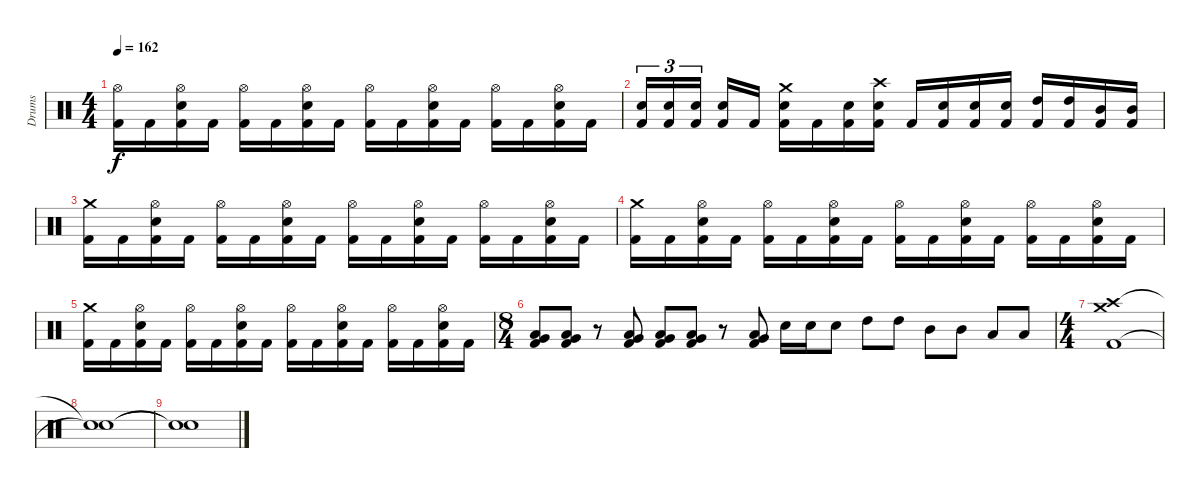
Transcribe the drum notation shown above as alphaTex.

\track ("Drums" "Drums") {instrument percussion}
\staff {score}
\articulation defaults
\ts (4 4)
\tempo 162
\clef neutral
\ks c
("Kick (hit) 2" "Hi-Hat (open)").16{dy f} "Kick (hit) 2".16 ("Kick (hit) 2" "Electric Snare (hit)" "Hi-Hat (open)").16 "Kick (hit) 2".16 ("Kick (hit) 2" "Hi-Hat (open)").16 "Kick (hit) 2".16 ("Kick (hit) 2" "Electric Snare (hit)" "Hi-Hat (open)").16 "Kick (hit) 2".16 ("Kick (hit) 2" "Hi-Hat (open)").16 "Kick (hit) 2".16 ("Kick (hit) 2" "Electric Snare (hit)" "Hi-Hat (open)").16 "Kick (hit) 2".16 ("Kick (hit) 2" "Hi-Hat (open)").16 "Kick (hit) 2".16 ("Kick (hit) 2" "Electric Snare (hit)" "Hi-Hat (open)").16 "Kick (hit) 2".16 |
("Kick (hit) 2" "Electric Snare (hit)").16{tu (3 2)} ("Kick (hit) 2" "Electric Snare (hit)").16{tu (3 2)} ("Kick (hit) 2" "Electric Snare (hit)").16{tu (3 2)} ("Kick (hit) 2" "Electric Snare (hit)").16 "Kick (hit) 2".16 ("Kick (hit) 2" "Electric Snare (hit)" "Crash medium (hit)").16 "Kick (hit) 2".16 ("Kick (hit) 2" "Electric Snare (hit)").16 ("Kick (hit) 2" "Electric Snare (hit)" "Crash high (hit)").16 "Kick (hit) 2".16 ("Kick (hit) 2" "Electric Snare (hit)").16 ("Kick (hit) 2" "Electric Snare (hit)").16 ("Kick (hit) 2" "Electric Snare (hit)").16 ("Kick (hit) 2" "High Tom (hit)").16 ("Kick (hit) 2" "High Tom (hit)").16 ("Kick (hit) 2" "Mid Tom (hit)").16 ("Kick (hit) 2" "Mid Tom (hit)").16 |
("Kick (hit) 2" "Crash medium (hit)").16 "Kick (hit) 2".16 ("Kick (hit) 2" "Electric Snare (hit)" "Hi-Hat (open)").16 "Kick (hit) 2".16 ("Kick (hit) 2" "Hi-Hat (open)").16 "Kick (hit) 2".16 ("Kick (hit) 2" "Electric Snare (hit)" "Hi-Hat (open)").16 "Kick (hit) 2".16 ("Kick (hit) 2" "Hi-Hat (open)").16 "Kick (hit) 2".16 ("Kick (hit) 2" "Electric Snare (hit)" "Hi-Hat (open)").16 "Kick (hit) 2".16 ("Kick (hit) 2" "Hi-Hat (open)").16 "Kick (hit) 2".16 ("Kick (hit) 2" "Electric Snare (hit)" "Hi-Hat (open)").16 "Kick (hit) 2".16 |
("Kick (hit) 2" "Crash medium (hit)").16 "Kick (hit) 2".16 ("Kick (hit) 2" "Electric Snare (hit)" "Hi-Hat (open)").16 "Kick (hit) 2".16 ("Kick (hit) 2" "Hi-Hat (open)").16 "Kick (hit) 2".16 ("Kick (hit) 2" "Electric Snare (hit)" "Hi-Hat (open)").16 "Kick (hit) 2".16 ("Kick (hit) 2" "Hi-Hat (open)").16 "Kick (hit) 2".16 ("Kick (hit) 2" "Electric Snare (hit)" "Hi-Hat (open)").16 "Kick (hit) 2".16 ("Kick (hit) 2" "Hi-Hat (open)").16 "Kick (hit) 2".16 ("Kick (hit) 2" "Electric Snare (hit)" "Hi-Hat (open)").16 "Kick (hit) 2".16 |
("Kick (hit) 2" "Crash medium (hit)").16 "Kick (hit) 2".16 ("Kick (hit) 2" "Electric Snare (hit)" "Hi-Hat (open)").16 "Kick (hit) 2".16 ("Kick (hit) 2" "Hi-Hat (open)").16 "Kick (hit) 2".16 ("Kick (hit) 2" "Electric Snare (hit)" "Hi-Hat (open)").16 "Kick (hit) 2".16 ("Kick (hit) 2" "Hi-Hat (open)").16 "Kick (hit) 2".16 ("Kick (hit) 2" "Electric Snare (hit)" "Hi-Hat (open)").16 "Kick (hit) 2".16 ("Kick (hit) 2" "Hi-Hat (open)").16 "Kick (hit) 2".16 ("Kick (hit) 2" "Electric Snare (hit)" "Hi-Hat (open)").16 "Kick (hit) 2".16 |
\ts (8 4)
("Kick (hit) 2" "Low Tom (hit)" "Very Low Tom (hit)").8 ("Kick (hit) 2" "Low Tom (hit)" "Very Low Tom (hit)").8 r.8 ("Kick (hit) 2" "Low Tom (hit)" "Very Low Tom (hit)").8 ("Kick (hit) 2" "Low Tom (hit)" "Very Low Tom (hit)").8 ("Kick (hit) 2" "Low Tom (hit)" "Very Low Tom (hit)").8 r.8 ("Kick (hit) 2" "Low Tom (hit)" "Very Low Tom (hit)").8 "Electric Snare (hit)".16 "Electric Snare (hit)".16 "Electric Snare (hit)".8 "High Tom (hit)".8 "High Tom (hit)".8 "Mid Tom (hit)".8 "Mid Tom (hit)".8 "Low Tom (hit)".8 "Low Tom (hit)".8 |
\ts (4 4)
("Kick (hit) 2" "Crash high (hit)" "Crash medium (hit)").1 |
("Snare (hit)"{t} "Snare (hit)"{t}).1 |
("Snare (hit)"{t} "Snare (hit)"{t}).1
